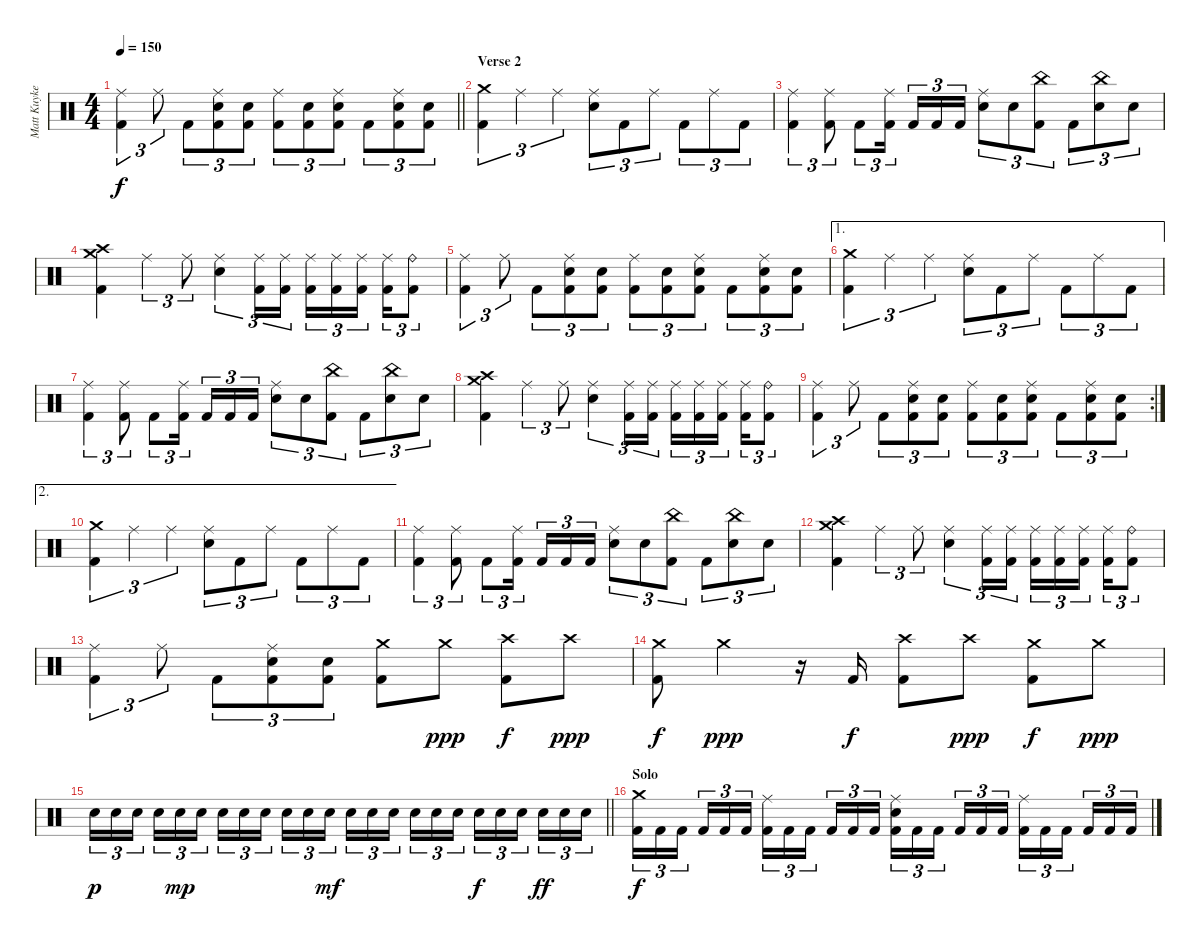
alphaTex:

\track ("Matt Kuykendall" "Matt Kuyke") {instrument percussion}
\staff {score}
\articulation defaults
\ts (4 4)
\tempo 150
\clef neutral
\barLineRight lightlight
\ks c
("Ride (middle)" "Kick (hit) 2").4{tu (3 2) dy f} "Ride (middle)".8{tu (3 2)} "Kick (hit) 2".8{tu (3 2)} ("Ride (middle)" "Electric Snare (hit)" "Kick (hit) 2").8{tu (3 2)} ("Electric Snare (hit)" "Kick (hit) 2").8{tu (3 2)} ("Ride (middle)" "Kick (hit) 2").8{tu (3 2)} ("Electric Snare (hit)" "Kick (hit) 2").8{tu (3 2)} ("Ride (middle)" "Electric Snare (hit)" "Kick (hit) 2").8{tu (3 2)} "Kick (hit) 2".8{tu (3 2)} ("Ride (middle)" "Electric Snare (hit)" "Kick (hit) 2").8{tu (3 2)} ("Electric Snare (hit)" "Kick (hit) 2").8{tu (3 2)} |
\section ("" "Verse 2")
("Crash medium (hit)" "Kick (hit) 2").4{tu (3 2)} "Ride (middle)".4{tu (3 2)} "Ride (middle)".4{tu (3 2)} ("Ride (middle)" "Electric Snare (hit)").8{tu (3 2)} "Kick (hit) 2".8{tu (3 2)} "Ride (middle)".8{tu (3 2)} "Kick (hit) 2".8{tu (3 2)} "Ride (middle)".8{tu (3 2)} "Kick (hit) 2".8{tu (3 2)} |
("Ride (middle)" "Kick (hit) 2").4{tu (3 2)} ("Ride (middle)" "Kick (hit) 2").8{tu (3 2)} "Kick (hit) 2".8{tu (3 2)} ("Ride (middle)" "Kick (hit) 2").16{tu (3 2) beam splitsecondary} "Kick (hit) 2".16{tu (3 2)} "Kick (hit) 2".16{tu (3 2)} "Kick (hit) 2".16{tu (3 2)} ("Ride (middle)" "Electric Snare (hit)").8{tu (3 2)} "Electric Snare (hit)".8{tu (3 2)} ("China (hit)" "Kick (hit) 2").8{tu (3 2)} "Kick (hit) 2".8{tu (3 2)} ("China (hit)" "Electric Snare (hit)").8{tu (3 2)} "Electric Snare (hit)".8{tu (3 2)} |
("Crash medium (hit)" "Crash high (hit)" "Kick (hit) 2").4 "Ride (middle)".4{tu (3 2)} "Ride (middle)".8{tu (3 2)} ("Ride (middle)" "Electric Snare (hit)").4{tu (3 2)} ("Ride (middle)" "Kick (hit) 2").16{tu (3 2)} ("Ride (middle)" "Kick (hit) 2").16{tu (3 2)} ("Ride (middle)" "Kick (hit) 2").16{tu (3 2)} ("Ride (middle)" "Kick (hit) 2").16{tu (3 2)} ("Ride (middle)" "Kick (hit) 2").16{tu (3 2) beam splitsecondary} ("Ride (middle)" "Kick (hit) 2").16{tu (3 2)} ("Ride (bell)" "Kick (hit) 2").8{tu (3 2)} |
("Ride (middle)" "Kick (hit) 2").4{tu (3 2)} "Ride (middle)".8{tu (3 2)} "Kick (hit) 2".8{tu (3 2)} ("Ride (middle)" "Electric Snare (hit)" "Kick (hit) 2").8{tu (3 2)} ("Electric Snare (hit)" "Kick (hit) 2").8{tu (3 2)} ("Ride (middle)" "Kick (hit) 2").8{tu (3 2)} ("Electric Snare (hit)" "Kick (hit) 2").8{tu (3 2)} ("Ride (middle)" "Electric Snare (hit)" "Kick (hit) 2").8{tu (3 2)} "Kick (hit) 2".8{tu (3 2)} ("Ride (middle)" "Electric Snare (hit)" "Kick (hit) 2").8{tu (3 2)} ("Electric Snare (hit)" "Kick (hit) 2").8{tu (3 2)} |
\ae 1
("Crash medium (hit)" "Kick (hit) 2").4{tu (3 2)} "Ride (middle)".4{tu (3 2)} "Ride (middle)".4{tu (3 2)} ("Ride (middle)" "Electric Snare (hit)").8{tu (3 2)} "Kick (hit) 2".8{tu (3 2)} "Ride (middle)".8{tu (3 2)} "Kick (hit) 2".8{tu (3 2)} "Ride (middle)".8{tu (3 2)} "Kick (hit) 2".8{tu (3 2)} |
("Ride (middle)" "Kick (hit) 2").4{tu (3 2)} ("Ride (middle)" "Kick (hit) 2").8{tu (3 2)} "Kick (hit) 2".8{tu (3 2)} ("Ride (middle)" "Kick (hit) 2").16{tu (3 2) beam splitsecondary} "Kick (hit) 2".16{tu (3 2)} "Kick (hit) 2".16{tu (3 2)} "Kick (hit) 2".16{tu (3 2)} ("Ride (middle)" "Electric Snare (hit)").8{tu (3 2)} "Electric Snare (hit)".8{tu (3 2)} ("China (hit)" "Kick (hit) 2").8{tu (3 2)} "Kick (hit) 2".8{tu (3 2)} ("China (hit)" "Electric Snare (hit)").8{tu (3 2)} "Electric Snare (hit)".8{tu (3 2)} |
("Crash medium (hit)" "Crash high (hit)" "Kick (hit) 2").4 "Ride (middle)".4{tu (3 2)} "Ride (middle)".8{tu (3 2)} ("Ride (middle)" "Electric Snare (hit)").4{tu (3 2)} ("Ride (middle)" "Kick (hit) 2").16{tu (3 2)} ("Ride (middle)" "Kick (hit) 2").16{tu (3 2)} ("Ride (middle)" "Kick (hit) 2").16{tu (3 2)} ("Ride (middle)" "Kick (hit) 2").16{tu (3 2)} ("Ride (middle)" "Kick (hit) 2").16{tu (3 2) beam splitsecondary} ("Ride (middle)" "Kick (hit) 2").16{tu (3 2)} ("Ride (bell)" "Kick (hit) 2").8{tu (3 2)} |
\rc 2
("Ride (middle)" "Kick (hit) 2").4{tu (3 2)} "Ride (middle)".8{tu (3 2)} "Kick (hit) 2".8{tu (3 2)} ("Ride (middle)" "Electric Snare (hit)" "Kick (hit) 2").8{tu (3 2)} ("Electric Snare (hit)" "Kick (hit) 2").8{tu (3 2)} ("Ride (middle)" "Kick (hit) 2").8{tu (3 2)} ("Electric Snare (hit)" "Kick (hit) 2").8{tu (3 2)} ("Ride (middle)" "Electric Snare (hit)" "Kick (hit) 2").8{tu (3 2)} "Kick (hit) 2".8{tu (3 2)} ("Ride (middle)" "Electric Snare (hit)" "Kick (hit) 2").8{tu (3 2)} ("Electric Snare (hit)" "Kick (hit) 2").8{tu (3 2)} |
\ae 2
("Crash medium (hit)" "Kick (hit) 2").4{tu (3 2)} "Ride (middle)".4{tu (3 2)} "Ride (middle)".4{tu (3 2)} ("Ride (middle)" "Electric Snare (hit)").8{tu (3 2)} "Kick (hit) 2".8{tu (3 2)} "Ride (middle)".8{tu (3 2)} "Kick (hit) 2".8{tu (3 2)} "Ride (middle)".8{tu (3 2)} "Kick (hit) 2".8{tu (3 2)} |
("Ride (middle)" "Kick (hit) 2").4{tu (3 2)} ("Ride (middle)" "Kick (hit) 2").8{tu (3 2)} "Kick (hit) 2".8{tu (3 2)} ("Ride (middle)" "Kick (hit) 2").16{tu (3 2) beam splitsecondary} "Kick (hit) 2".16{tu (3 2)} "Kick (hit) 2".16{tu (3 2)} "Kick (hit) 2".16{tu (3 2)} ("Ride (middle)" "Electric Snare (hit)").8{tu (3 2)} "Electric Snare (hit)".8{tu (3 2)} ("China (hit)" "Kick (hit) 2").8{tu (3 2)} "Kick (hit) 2".8{tu (3 2)} ("China (hit)" "Electric Snare (hit)").8{tu (3 2)} "Electric Snare (hit)".8{tu (3 2)} |
("Crash medium (hit)" "Crash high (hit)" "Kick (hit) 2").4 "Ride (middle)".4{tu (3 2)} "Ride (middle)".8{tu (3 2)} ("Ride (middle)" "Electric Snare (hit)").4{tu (3 2)} ("Ride (middle)" "Kick (hit) 2").16{tu (3 2)} ("Ride (middle)" "Kick (hit) 2").16{tu (3 2)} ("Ride (middle)" "Kick (hit) 2").16{tu (3 2)} ("Ride (middle)" "Kick (hit) 2").16{tu (3 2)} ("Ride (middle)" "Kick (hit) 2").16{tu (3 2) beam splitsecondary} ("Ride (middle)" "Kick (hit) 2").16{tu (3 2)} ("Ride (bell)" "Kick (hit) 2").8{tu (3 2)} |
("Ride (middle)" "Kick (hit) 2").4{tu (3 2)} "Ride (middle)".8{tu (3 2)} "Kick (hit) 2".8{tu (3 2)} ("Ride (middle)" "Electric Snare (hit)" "Kick (hit) 2").8{tu (3 2)} ("Electric Snare (hit)" "Kick (hit) 2").8{tu (3 2)} ("Crash medium (hit)" "Kick (hit) 2").8 "Crash medium (hit)".8{dy ppp} ("Crash high (hit)" "Kick (hit) 2").8{dy f} "Crash high (hit)".8{dy ppp} |
("Crash medium (hit)" "Kick (hit) 2").8{dy f} "Crash medium (hit)".4{dy ppp} r.16 "Kick (hit) 2".16{dy f} ("Crash high (hit)" "Kick (hit) 2").8 "Crash high (hit)".8{dy ppp} ("Crash medium (hit)" "Kick (hit) 2").8{dy f} "Crash medium (hit)".8{dy ppp} |
\barLineRight lightlight "Electric Snare (hit)".16{tu (3 2) dy p} "Electric Snare (hit)".16{tu (3 2)} "Electric Snare (hit)".16{tu (3 2) beam splitsecondary} "Electric Snare (hit)".16{tu (3 2)} "Electric Snare (hit)".16{tu (3 2) dy mp} "Electric Snare (hit)".16{tu (3 2)} "Electric Snare (hit)".16{tu (3 2)} "Electric Snare (hit)".16{tu (3 2)} "Electric Snare (hit)".16{tu (3 2) beam splitsecondary} "Electric Snare (hit)".16{tu (3 2)} "Electric Snare (hit)".16{tu (3 2)} "Electric Snare (hit)".16{tu (3 2) dy mf} "Electric Snare (hit)".16{tu (3 2)} "Electric Snare (hit)".16{tu (3 2)} "Electric Snare (hit)".16{tu (3 2) beam splitsecondary} "Electric Snare (hit)".16{tu (3 2)} "Electric Snare (hit)".16{tu (3 2)} "Electric Snare (hit)".16{tu (3 2)} "Electric Snare (hit)".16{tu (3 2) dy f} "Electric Snare (hit)".16{tu (3 2)} "Electric Snare (hit)".16{tu (3 2) beam splitsecondary} "Electric Snare (hit)".16{tu (3 2) dy ff} "Electric Snare (hit)".16{tu (3 2)} "Electric Snare (hit)".16{tu (3 2)}
|
\section ("" "Solo")
("Crash medium (hit)" "Kick (hit) 2").16{tu (3 2) dy f} "Kick (hit) 2".16{tu (3 2)} "Kick (hit) 2".16{tu (3 2) beam splitsecondary} "Kick (hit) 2".16{tu (3 2)} "Kick (hit) 2".16{tu (3 2)} "Kick (hit) 2".16{tu (3 2)} ("Ride (middle)" "Kick (hit) 2").16{tu (3 2)} "Kick (hit) 2".16{tu (3 2)} "Kick (hit) 2".16{tu (3 2) beam splitsecondary} "Kick (hit) 2".16{tu (3 2)} "Kick (hit) 2".16{tu (3 2)} "Kick (hit) 2".16{tu (3 2)} ("Ride (middle)" "Electric Snare (hit)" "Kick (hit) 2").16{tu (3 2)} "Kick (hit) 2".16{tu (3 2)} "Kick (hit) 2".16{tu (3 2) beam splitsecondary} "Kick (hit) 2".16{tu (3 2)} "Kick (hit) 2".16{tu (3 2)} "Kick (hit) 2".16{tu (3 2)} ("Ride (middle)" "Kick (hit) 2").16{tu (3 2)} "Kick (hit) 2".16{tu (3 2)} "Kick (hit) 2".16{tu (3 2) beam splitsecondary} "Kick (hit) 2".16{tu (3 2)} "Kick (hit) 2".16{tu (3 2)} "Kick (hit) 2".16{tu (3 2)}
